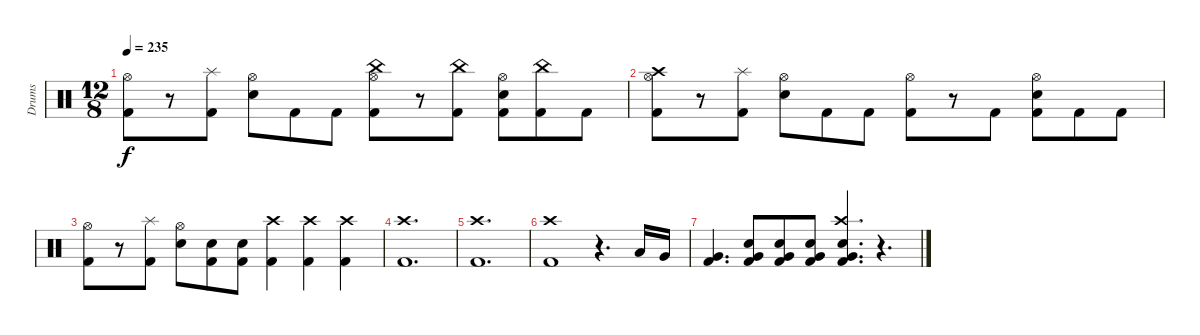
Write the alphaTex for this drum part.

\track ("Drums" "Drums") {instrument percussion}
\staff {score}
\articulation defaults
\ts (12 8)
\tempo 235
\clef neutral
\ks c
("Hi-Hat (open)" "Kick (hit) 2").8{dy f} r.8 ("Splash (hit)" "Kick (hit) 2").8 ("Hi-Hat (open)" "Snare (hit) 2").8 "Kick (hit) 2".8 "Kick (hit) 2".8 ("China (hit)" "Hi-Hat (open)" "Kick (hit) 2").8 r.8 ("China (hit)" "Kick (hit) 2").8 ("Hi-Hat (open)" "Snare (hit) 2" "Kick (hit) 2").8 ("China (hit)" "Kick (hit) 2").8 "Kick (hit) 2".8 |
("Crash high (hit)" "Hi-Hat (open)" "Kick (hit) 2").8 r.8 ("Splash (hit)" "Kick (hit) 2").8 ("Hi-Hat (open)" "Snare (hit) 2").8 "Kick (hit) 2".8 "Kick (hit) 2".8 ("Hi-Hat (open)" "Kick (hit) 2").8 r.8 "Kick (hit) 2".8 ("Hi-Hat (open)" "Snare (hit) 2" "Kick (hit) 2").8 "Kick (hit) 2".8 "Kick (hit) 2".8 |
("Hi-Hat (open)" "Kick (hit) 2").8 r.8 ("Splash (hit)" "Kick (hit) 2").8 ("Hi-Hat (open)" "Snare (hit) 2").8 ("Snare (hit) 2" "Kick (hit) 2").8 ("Snare (hit) 2" "Kick (hit) 2").8 ("Crash high (hit)" "Kick (hit) 2").4 ("Crash high (hit)" "Kick (hit) 2").4 ("Crash high (hit)" "Kick (hit) 2").4 |
("Crash high (hit)" "Kick (hit) 2").1{d} |
("Crash high (hit)" "Kick (hit) 2").1{d} |
("Crash high (hit)" "Kick (hit) 2").1 r.4{d} "Low Tom (hit)".16 "Very Low Tom (hit)".16 |
("Very Low Tom (hit)" "Kick (hit) 2").4{d} ("Very Low Tom (hit)" "Snare (hit) 2" "Kick (hit) 2").8 ("Very Low Tom (hit)" "Snare (hit) 2" "Kick (hit) 2").8 ("Very Low Tom (hit)" "Snare (hit) 2" "Kick (hit) 2").8 ("Crash high (hit)" "Very Low Tom (hit)" "Snare (hit) 2" "Kick (hit) 2").4{d} r.4{d}
